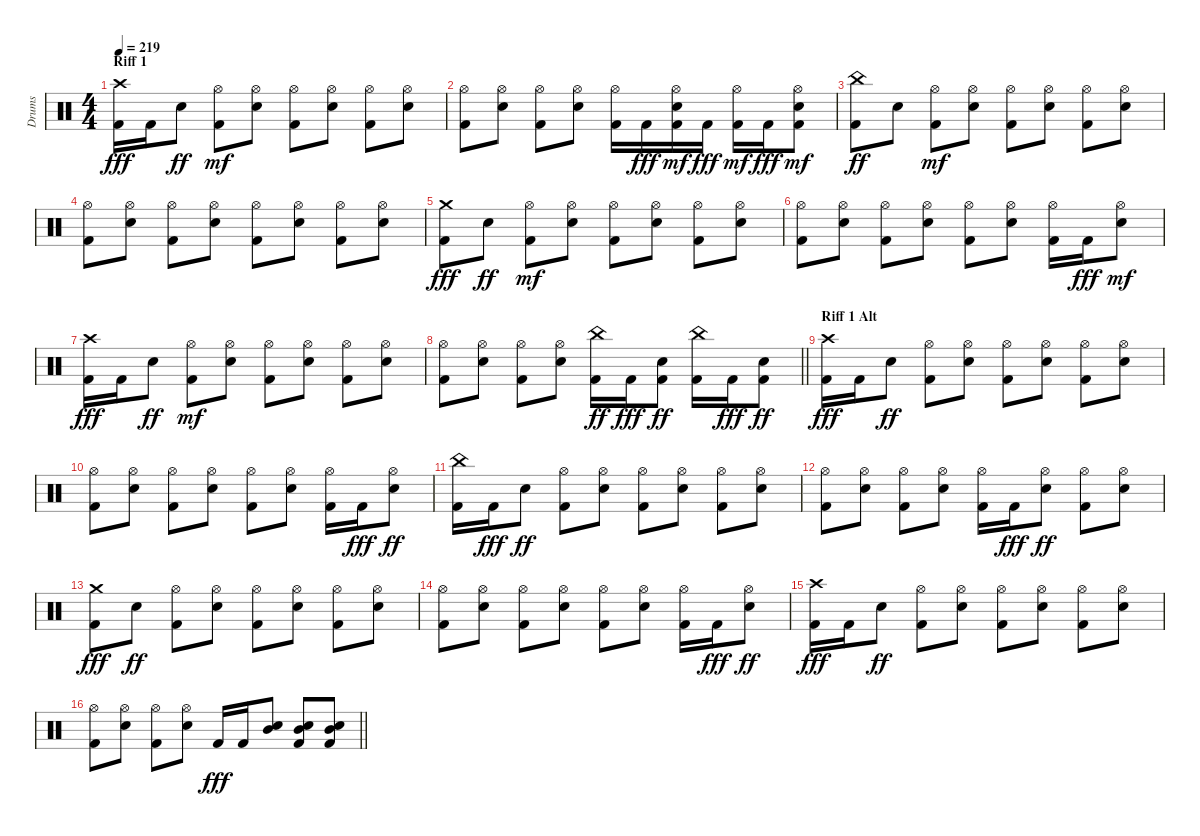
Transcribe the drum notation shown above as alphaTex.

\track ("Drums" "Drums") {instrument percussion}
\staff {score}
\articulation defaults
\ts (4 4)
\section ("" "Riff 1")
\tempo 219
\clef neutral
\ks c
("Kick (hit) 2" "Crash high (hit)").16{dy fff} "Kick (hit) 2".16 "Snare (hit) 2".8{dy ff} ("Kick (hit) 2" "Hi-Hat (open)").8{dy mf} ("Snare (hit) 2" "Hi-Hat (open)").8 ("Kick (hit) 2" "Hi-Hat (open)").8 ("Snare (hit) 2" "Hi-Hat (open)").8 ("Kick (hit) 2" "Hi-Hat (open)").8 ("Snare (hit) 2" "Hi-Hat (open)").8 |
("Kick (hit) 2" "Hi-Hat (open)").8 ("Snare (hit) 2" "Hi-Hat (open)").8 ("Kick (hit) 2" "Hi-Hat (open)").8 ("Snare (hit) 2" "Hi-Hat (open)").8 ("Kick (hit) 2" "Hi-Hat (open)").16 "Kick (hit) 2".16{dy fff} ("Kick (hit) 2" "Snare (hit) 2" "Hi-Hat (open)").16{dy mf} "Kick (hit) 2".16{dy fff} ("Kick (hit) 2" "Hi-Hat (open)").16{dy mf} "Kick (hit) 2".16{dy fff} ("Kick (hit) 2" "Snare (hit) 2" "Hi-Hat (open)").8{dy mf} |
("Kick (hit) 2" "China (hit)").8{dy ff} "Snare (hit) 2".8 ("Kick (hit) 2" "Hi-Hat (open)").8{dy mf} ("Snare (hit) 2" "Hi-Hat (open)").8 ("Kick (hit) 2" "Hi-Hat (open)").8 ("Snare (hit) 2" "Hi-Hat (open)").8 ("Kick (hit) 2" "Hi-Hat (open)").8 ("Snare (hit) 2" "Hi-Hat (open)").8 |
("Kick (hit) 2" "Hi-Hat (open)").8 ("Snare (hit) 2" "Hi-Hat (open)").8 ("Kick (hit) 2" "Hi-Hat (open)").8 ("Snare (hit) 2" "Hi-Hat (open)").8 ("Kick (hit) 2" "Hi-Hat (open)").8 ("Snare (hit) 2" "Hi-Hat (open)").8 ("Kick (hit) 2" "Hi-Hat (open)").8 ("Snare (hit) 2" "Hi-Hat (open)").8 |
("Kick (hit) 2" "Crash medium (hit)").8{dy fff} "Snare (hit) 2".8{dy ff} ("Kick (hit) 2" "Hi-Hat (open)").8{dy mf} ("Snare (hit) 2" "Hi-Hat (open)").8 ("Kick (hit) 2" "Hi-Hat (open)").8 ("Snare (hit) 2" "Hi-Hat (open)").8 ("Kick (hit) 2" "Hi-Hat (open)").8 ("Snare (hit) 2" "Hi-Hat (open)").8 |
("Kick (hit) 2" "Hi-Hat (open)").8 ("Snare (hit) 2" "Hi-Hat (open)").8 ("Kick (hit) 2" "Hi-Hat (open)").8 ("Snare (hit) 2" "Hi-Hat (open)").8 ("Kick (hit) 2" "Hi-Hat (open)").8 ("Snare (hit) 2" "Hi-Hat (open)").8 ("Kick (hit) 2" "Hi-Hat (open)").16 "Kick (hit) 2".16{dy fff} ("Snare (hit) 2" "Hi-Hat (open)").8{dy mf} |
("Kick (hit) 2" "Crash high (hit)").16{dy fff} "Kick (hit) 2".16 "Snare (hit) 2".8{dy ff} ("Kick (hit) 2" "Hi-Hat (open)").8{dy mf} ("Snare (hit) 2" "Hi-Hat (open)").8 ("Kick (hit) 2" "Hi-Hat (open)").8 ("Snare (hit) 2" "Hi-Hat (open)").8 ("Kick (hit) 2" "Hi-Hat (open)").8 ("Snare (hit) 2" "Hi-Hat (open)").8 |
\barLineRight lightlight
("Kick (hit) 2" "Hi-Hat (open)").8 ("Snare (hit) 2" "Hi-Hat (open)").8 ("Kick (hit) 2" "Hi-Hat (open)").8 ("Snare (hit) 2" "Hi-Hat (open)").8 ("Kick (hit) 2" "China (hit)").16{dy ff} "Kick (hit) 2".16{dy fff} ("Kick (hit) 2" "Snare (hit) 2").8{dy ff} ("Kick (hit) 2" "China (hit)").16 "Kick (hit) 2".16{dy fff} ("Kick (hit) 2" "Snare (hit) 2").8{dy ff} |
\section ("" "Riff 1 Alt")
("Kick (hit) 2" "Crash high (hit)").16{dy fff} "Kick (hit) 2".16 "Snare (hit) 2".8{dy ff} ("Kick (hit) 2" "Hi-Hat (open)").8 ("Snare (hit) 2" "Hi-Hat (open)").8 ("Kick (hit) 2" "Hi-Hat (open)").8 ("Snare (hit) 2" "Hi-Hat (open)").8 ("Kick (hit) 2" "Hi-Hat (open)").8 ("Snare (hit) 2" "Hi-Hat (open)").8 |
("Kick (hit) 2" "Hi-Hat (open)").8 ("Snare (hit) 2" "Hi-Hat (open)").8 ("Kick (hit) 2" "Hi-Hat (open)").8 ("Snare (hit) 2" "Hi-Hat (open)").8 ("Kick (hit) 2" "Hi-Hat (open)").8 ("Snare (hit) 2" "Hi-Hat (open)").8 ("Kick (hit) 2" "Hi-Hat (open)").16 "Kick (hit) 2".16{dy fff} ("Snare (hit) 2" "Hi-Hat (open)").8{dy ff} |
("Kick (hit) 2" "China (hit)").16 "Kick (hit) 2".16{dy fff} "Snare (hit) 2".8{dy ff} ("Kick (hit) 2" "Hi-Hat (open)").8 ("Snare (hit) 2" "Hi-Hat (open)").8 ("Kick (hit) 2" "Hi-Hat (open)").8 ("Snare (hit) 2" "Hi-Hat (open)").8 ("Kick (hit) 2" "Hi-Hat (open)").8 ("Snare (hit) 2" "Hi-Hat (open)").8 |
("Kick (hit) 2" "Hi-Hat (open)").8 ("Snare (hit) 2" "Hi-Hat (open)").8 ("Kick (hit) 2" "Hi-Hat (open)").8 ("Snare (hit) 2" "Hi-Hat (open)").8 ("Kick (hit) 2" "Hi-Hat (open)").16 "Kick (hit) 2".16{dy fff} ("Snare (hit) 2" "Hi-Hat (open)").8{dy ff} ("Kick (hit) 2" "Hi-Hat (open)").8 ("Snare (hit) 2" "Hi-Hat (open)").8 |
("Kick (hit) 2" "Crash medium (hit)").8{dy fff} "Snare (hit) 2".8{dy ff} ("Kick (hit) 2" "Hi-Hat (open)").8 ("Snare (hit) 2" "Hi-Hat (open)").8 ("Kick (hit) 2" "Hi-Hat (open)").8 ("Snare (hit) 2" "Hi-Hat (open)").8 ("Kick (hit) 2" "Hi-Hat (open)").8 ("Snare (hit) 2" "Hi-Hat (open)").8 |
("Kick (hit) 2" "Hi-Hat (open)").8 ("Snare (hit) 2" "Hi-Hat (open)").8 ("Kick (hit) 2" "Hi-Hat (open)").8 ("Snare (hit) 2" "Hi-Hat (open)").8 ("Kick (hit) 2" "Hi-Hat (open)").8 ("Snare (hit) 2" "Hi-Hat (open)").8 ("Kick (hit) 2" "Hi-Hat (open)").16 "Kick (hit) 2".16{dy fff} ("Snare (hit) 2" "Hi-Hat (open)").8{dy ff} |
("Kick (hit) 2" "Crash high (hit)").16{dy fff} "Kick (hit) 2".16 "Snare (hit) 2".8{dy ff} ("Kick (hit) 2" "Hi-Hat (open)").8 ("Snare (hit) 2" "Hi-Hat (open)").8 ("Kick (hit) 2" "Hi-Hat (open)").8 ("Snare (hit) 2" "Hi-Hat (open)").8 ("Kick (hit) 2" "Hi-Hat (open)").8 ("Snare (hit) 2" "Hi-Hat (open)").8 |
\barLineRight lightlight
("Kick (hit) 2" "Hi-Hat (open)").8 ("Snare (hit) 2" "Hi-Hat (open)").8 ("Kick (hit) 2" "Hi-Hat (open)").8 ("Snare (hit) 2" "Hi-Hat (open)").8 "Kick (hit) 2".16{dy fff} "Kick (hit) 2".16 ("Snare (hit) 2" "Mid Tom (hit)").8 ("Kick (hit) 2" "Snare (hit) 2" "Mid Tom (hit)").8 ("Kick (hit) 2" "Snare (hit) 2" "Mid Tom (hit)").8
